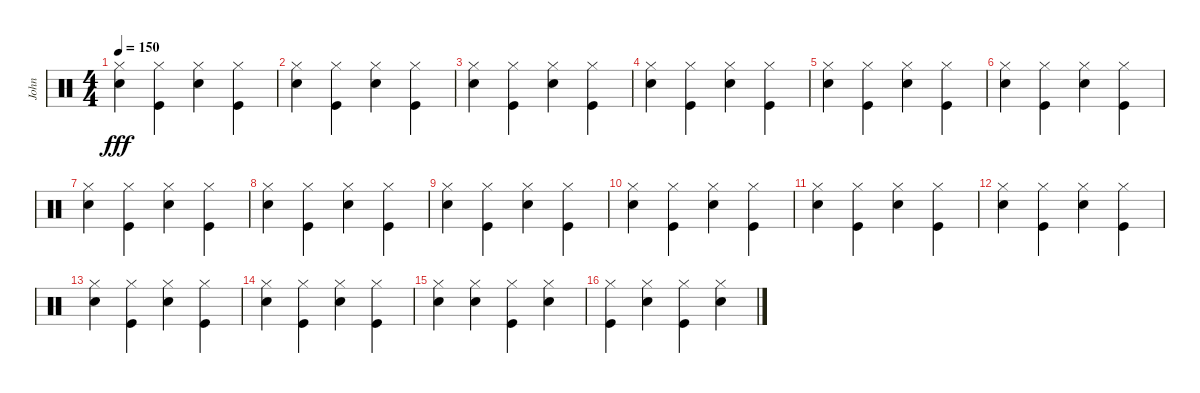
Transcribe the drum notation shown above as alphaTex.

\track ("John" "John") {instrument percussion}
\staff {score}
\articulation defaults
\ts (4 4)
\tempo 150
\clef neutral
\ks c
("Hi-Hat (closed)" "Snare (hit) 2").4{dy fff} ("Hi-Hat (closed)" "Kick (hit)").4 ("Hi-Hat (closed)" "Snare (hit) 2").4 ("Hi-Hat (closed)" "Kick (hit)").4 |
("Hi-Hat (closed)" "Snare (hit) 2").4 ("Hi-Hat (closed)" "Kick (hit)").4 ("Hi-Hat (closed)" "Snare (hit) 2").4 ("Hi-Hat (closed)" "Kick (hit)").4 |
("Hi-Hat (closed)" "Snare (hit) 2").4 ("Hi-Hat (closed)" "Kick (hit)").4 ("Hi-Hat (closed)" "Snare (hit) 2").4 ("Hi-Hat (closed)" "Kick (hit)").4 |
("Hi-Hat (closed)" "Snare (hit) 2").4 ("Hi-Hat (closed)" "Kick (hit)").4 ("Hi-Hat (closed)" "Snare (hit) 2").4 ("Hi-Hat (closed)" "Kick (hit)").4 |
("Hi-Hat (closed)" "Snare (hit) 2").4 ("Hi-Hat (closed)" "Kick (hit)").4 ("Hi-Hat (closed)" "Snare (hit) 2").4 ("Hi-Hat (closed)" "Kick (hit)").4 |
("Hi-Hat (closed)" "Snare (hit) 2").4 ("Hi-Hat (closed)" "Kick (hit)").4 ("Hi-Hat (closed)" "Snare (hit) 2").4 ("Hi-Hat (closed)" "Kick (hit)").4 |
("Hi-Hat (closed)" "Snare (hit) 2").4 ("Hi-Hat (closed)" "Kick (hit)").4 ("Hi-Hat (closed)" "Snare (hit) 2").4 ("Hi-Hat (closed)" "Kick (hit)").4 |
("Hi-Hat (closed)" "Snare (hit) 2").4 ("Hi-Hat (closed)" "Kick (hit)").4 ("Hi-Hat (closed)" "Snare (hit) 2").4 ("Hi-Hat (closed)" "Kick (hit)").4 |
("Hi-Hat (closed)" "Snare (hit) 2").4 ("Hi-Hat (closed)" "Kick (hit)").4 ("Hi-Hat (closed)" "Snare (hit) 2").4 ("Hi-Hat (closed)" "Kick (hit)").4 |
("Hi-Hat (closed)" "Snare (hit) 2").4 ("Hi-Hat (closed)" "Kick (hit)").4 ("Hi-Hat (closed)" "Snare (hit) 2").4 ("Hi-Hat (closed)" "Kick (hit)").4 |
("Hi-Hat (closed)" "Snare (hit) 2").4 ("Hi-Hat (closed)" "Kick (hit)").4 ("Hi-Hat (closed)" "Snare (hit) 2").4 ("Hi-Hat (closed)" "Kick (hit)").4 |
("Hi-Hat (closed)" "Snare (hit) 2").4 ("Hi-Hat (closed)" "Kick (hit)").4 ("Hi-Hat (closed)" "Snare (hit) 2").4 ("Hi-Hat (closed)" "Kick (hit)").4 |
("Hi-Hat (closed)" "Snare (hit) 2").4 ("Hi-Hat (closed)" "Kick (hit)").4 ("Hi-Hat (closed)" "Snare (hit) 2").4 ("Hi-Hat (closed)" "Kick (hit)").4 |
("Hi-Hat (closed)" "Snare (hit) 2").4 ("Hi-Hat (closed)" "Kick (hit)").4 ("Hi-Hat (closed)" "Snare (hit) 2").4 ("Hi-Hat (closed)" "Kick (hit)").4 |
("Hi-Hat (closed)" "Snare (hit) 2").4 ("Hi-Hat (closed)" "Snare (hit) 2").4 ("Hi-Hat (closed)" "Kick (hit)").4 ("Hi-Hat (closed)" "Snare (hit) 2").4 |
("Hi-Hat (closed)" "Kick (hit)").4 ("Hi-Hat (closed)" "Snare (hit) 2").4 ("Hi-Hat (closed)" "Kick (hit)").4 ("Hi-Hat (closed)" "Snare (hit) 2").4
